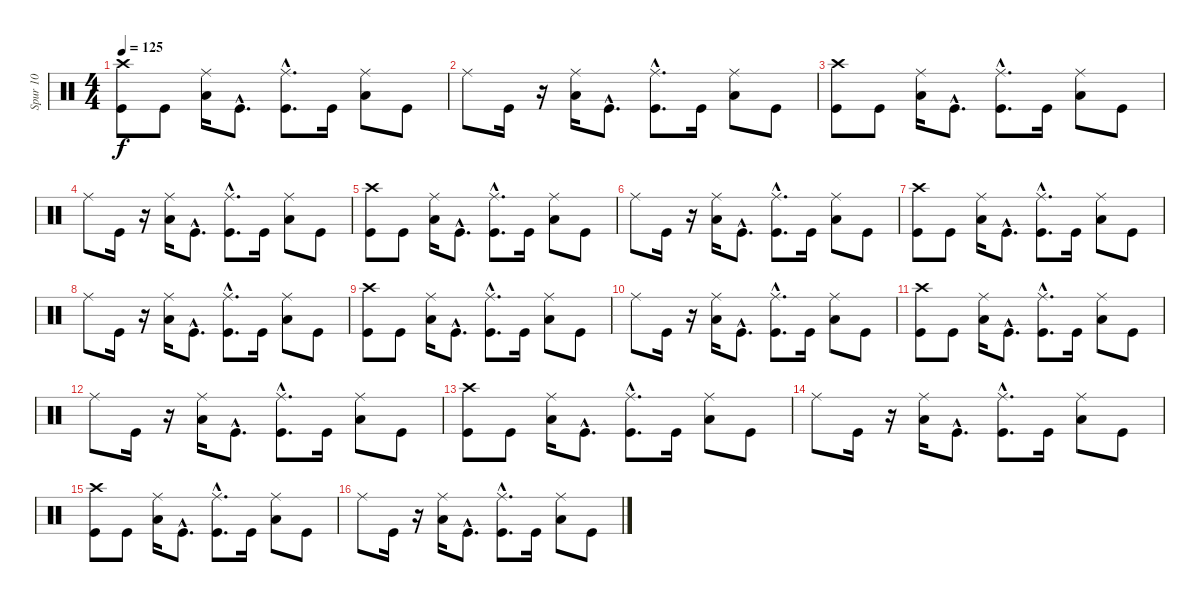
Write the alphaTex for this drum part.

\track ("Spur 10" "Spur 10") {instrument percussion}
\staff {score}
\articulation defaults
\ts (4 4)
\tempo 125
\clef neutral
\ks c
("Crash high (hit)" "Kick (hit)").8{dy f} "Kick (hit)".8 ("Ride (middle)" "Low Tom (hit)").16 "Kick (hit)"{hac}.8{d} ("Kick (hit)"{hac} "Ride (middle)").8{d} "Kick (hit)".16 ("Ride (middle)" "Low Tom (hit)").8 "Kick (hit)".8 |
"Ride (middle)".8 "Kick (hit)".16 r.16 ("Ride (middle)" "Low Tom (hit)").16 "Kick (hit)"{hac}.8{d} ("Ride (middle)" "Kick (hit)"{hac}).8{d} "Kick (hit)".16 ("Ride (middle)" "Low Tom (hit)").8 "Kick (hit)".8 |
("Crash high (hit)" "Kick (hit)").8 "Kick (hit)".8 ("Ride (middle)" "Low Tom (hit)").16 "Kick (hit)"{hac}.8{d} ("Kick (hit)"{hac} "Ride (middle)").8{d} "Kick (hit)".16 ("Low Tom (hit)" "Ride (middle)").8 "Kick (hit)".8 |
"Ride (middle)".8 "Kick (hit)".16 r.16 ("Low Tom (hit)" "Ride (middle)").16 "Kick (hit)"{hac}.8{d} ("Ride (middle)" "Kick (hit)"{hac}).8{d} "Kick (hit)".16 ("Ride (middle)" "Low Tom (hit)").8 "Kick (hit)".8 |
("Crash high (hit)" "Kick (hit)").8 "Kick (hit)".8 ("Ride (middle)" "Low Tom (hit)").16 "Kick (hit)"{hac}.8{d} ("Ride (middle)" "Kick (hit)"{hac}).8{d} "Kick (hit)".16 ("Ride (middle)" "Low Tom (hit)").8 "Kick (hit)".8 |
"Ride (middle)".8 "Kick (hit)".16 r.16 ("Ride (middle)" "Low Tom (hit)").16 "Kick (hit)"{hac}.8{d} ("Ride (middle)" "Kick (hit)"{hac}).8{d} "Kick (hit)".16 ("Low Tom (hit)" "Ride (middle)").8 "Kick (hit)".8 |
("Kick (hit)" "Crash high (hit)").8 "Kick (hit)".8 ("Ride (middle)" "Low Tom (hit)").16 "Kick (hit)"{hac}.8{d} ("Kick (hit)"{hac} "Ride (middle)").8{d} "Kick (hit)".16 ("Low Tom (hit)" "Ride (middle)").8 "Kick (hit)".8 |
"Ride (middle)".8 "Kick (hit)".16 r.16 ("Ride (middle)" "Low Tom (hit)").16 "Kick (hit)"{hac}.8{d} ("Kick (hit)"{hac} "Ride (middle)").8{d} "Kick (hit)".16 ("Low Tom (hit)" "Ride (middle)").8 "Kick (hit)".8 |
("Crash high (hit)" "Kick (hit)").8 "Kick (hit)".8 ("Low Tom (hit)" "Ride (middle)").16 "Kick (hit)"{hac}.8{d} ("Ride (middle)" "Kick (hit)"{hac}).8{d} "Kick (hit)".16 ("Ride (middle)" "Low Tom (hit)").8 "Kick (hit)".8 |
"Ride (middle)".8 "Kick (hit)".16 r.16 ("Ride (middle)" "Low Tom (hit)").16 "Kick (hit)"{hac}.8{d} ("Kick (hit)"{hac} "Ride (middle)").8{d} "Kick (hit)".16 ("Ride (middle)" "Low Tom (hit)").8 "Kick (hit)".8 |
("Crash high (hit)" "Kick (hit)").8 "Kick (hit)".8 ("Low Tom (hit)" "Ride (middle)").16 "Kick (hit)"{hac}.8{d} ("Kick (hit)"{hac} "Ride (middle)").8{d} "Kick (hit)".16 ("Low Tom (hit)" "Ride (middle)").8 "Kick (hit)".8 |
"Ride (middle)".8 "Kick (hit)".16 r.16 ("Ride (middle)" "Low Tom (hit)").16 "Kick (hit)"{hac}.8{d} ("Ride (middle)" "Kick (hit)"{hac}).8{d} "Kick (hit)".16 ("Low Tom (hit)" "Ride (middle)").8 "Kick (hit)".8 |
("Crash high (hit)" "Kick (hit)").8 "Kick (hit)".8 ("Ride (middle)" "Low Tom (hit)").16 "Kick (hit)"{hac}.8{d} ("Kick (hit)"{hac} "Ride (middle)").8{d} "Kick (hit)".16 ("Low Tom (hit)" "Ride (middle)").8 "Kick (hit)".8 |
"Ride (middle)".8 "Kick (hit)".16 r.16 ("Ride (middle)" "Low Tom (hit)").16 "Kick (hit)"{hac}.8{d} ("Ride (middle)" "Kick (hit)"{hac}).8{d} "Kick (hit)".16 ("Low Tom (hit)" "Ride (middle)").8 "Kick (hit)".8 |
("Kick (hit)" "Crash high (hit)").8 "Kick (hit)".8 ("Ride (middle)" "Low Tom (hit)").16 "Kick (hit)"{hac}.8{d} ("Ride (middle)" "Kick (hit)"{hac}).8{d} "Kick (hit)".16 ("Ride (middle)" "Low Tom (hit)").8 "Kick (hit)".8 |
"Ride (middle)".8 "Kick (hit)".16 r.16 ("Ride (middle)" "Low Tom (hit)").16 "Kick (hit)"{hac}.8{d} ("Ride (middle)" "Kick (hit)"{hac}).8{d} "Kick (hit)".16 ("Low Tom (hit)" "Ride (middle)").8 "Kick (hit)".8
